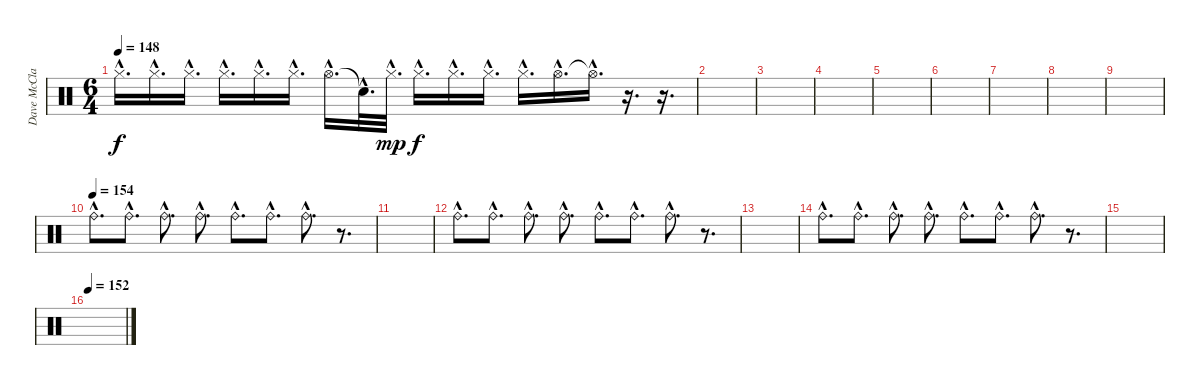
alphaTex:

\track ("Dave McClain" "Dave McCla") {instrument percussion}
\staff {score}
\articulation defaults
\ts (6 4)
\tempo 148
\clef neutral
\ks c "Hi-Hat (closed)"{hac}.16{d dy f} "Hi-Hat (closed)"{hac}.16{d} "Hi-Hat (closed)"{hac}.16{d} "Hi-Hat (closed)"{hac}.16{d} "Hi-Hat (closed)"{hac}.16{d} "Hi-Hat (closed)"{hac}.16{d} "Hi-Hat (open)"{hac}.16{d} "Snare (hit)"{hac t}.32{d} "Hi-Hat (closed)"{hac}.32{d dy mp} "Hi-Hat (closed)"{hac}.16{d dy f} "Hi-Hat (closed)"{hac}.16{d} "Hi-Hat (closed)"{hac}.16{d} "Hi-Hat (closed)"{hac}.16{d} "Hi-Hat (open)"{hac}.16{d} "Hi-Hat (open)"{hac t}.16{d}
r.16{d} r.16{d} |
|
|
|
|
|
|
|
|
\tempo (154)
"Ride (bell)"{hac}.8{d} "Ride (bell)"{hac}.8{d} "Ride (bell)"{hac}.8{d} "Ride (bell)"{hac}.8{d} "Ride (bell)"{hac}.8{d} "Ride (bell)"{hac}.8{d} "Ride (bell)"{hac}.8{d} r.8{d} |
|
"Ride (bell)"{hac}.8{d} "Ride (bell)"{hac}.8{d} "Ride (bell)"{hac}.8{d} "Ride (bell)"{hac}.8{d} "Ride (bell)"{hac}.8{d} "Ride (bell)"{hac}.8{d} "Ride (bell)"{hac}.8{d} r.8{d} |
|
"Ride (bell)"{hac}.8{d} "Ride (bell)"{hac}.8{d} "Ride (bell)"{hac}.8{d} "Ride (bell)"{hac}.8{d} "Ride (bell)"{hac}.8{d} "Ride (bell)"{hac}.8{d} "Ride (bell)"{hac}.8{d} r.8{d} |
|
\tempo 152
